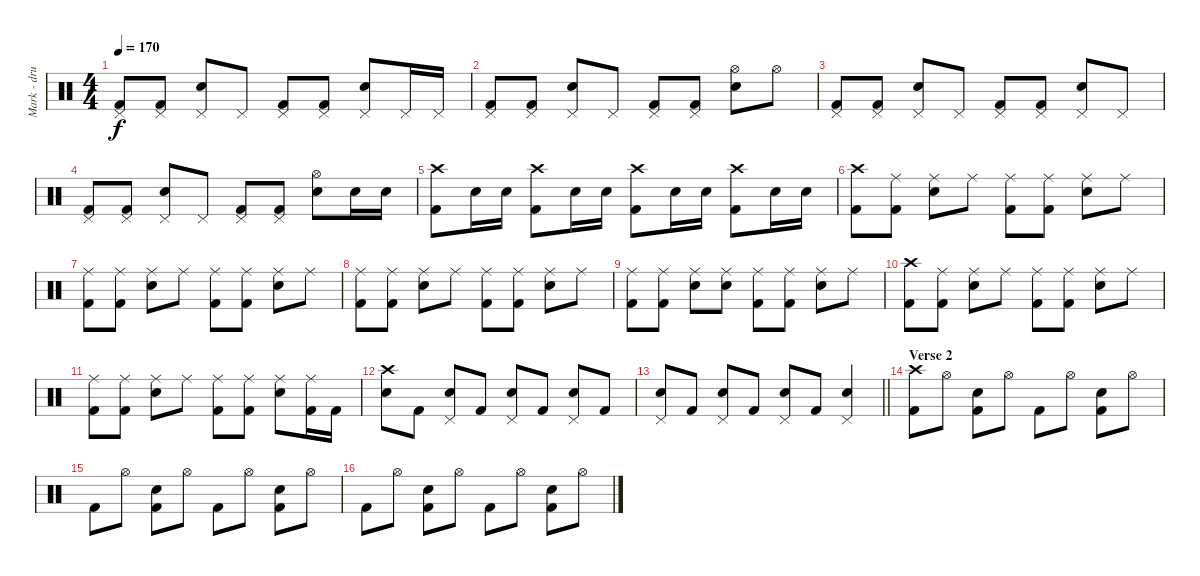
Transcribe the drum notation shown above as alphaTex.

\track ("Mark - drums" "Mark - dru") {instrument percussion}
\staff {score}
\articulation defaults
\ts (4 4)
\tempo 170
\clef neutral
\ks c
("Kick (hit) 2" "Pedal Hi-Hat (hit)").8{dy f} ("Kick (hit) 2" "Pedal Hi-Hat (hit)").8 ("Electric Snare (hit)" "Pedal Hi-Hat (hit)").8 "Pedal Hi-Hat (hit)".8 ("Kick (hit) 2" "Pedal Hi-Hat (hit)").8 ("Kick (hit) 2" "Pedal Hi-Hat (hit)").8 ("Electric Snare (hit)" "Pedal Hi-Hat (hit)").8 "Pedal Hi-Hat (hit)".16 "Pedal Hi-Hat (hit)".16 |
("Kick (hit) 2" "Pedal Hi-Hat (hit)").8 ("Kick (hit) 2" "Pedal Hi-Hat (hit)").8 ("Electric Snare (hit)" "Pedal Hi-Hat (hit)").8 "Pedal Hi-Hat (hit)".8 ("Kick (hit) 2" "Pedal Hi-Hat (hit)").8 ("Kick (hit) 2" "Pedal Hi-Hat (hit)").8 ("Electric Snare (hit)" "Hi-Hat (open)").8 "Hi-Hat (open)".8 |
("Kick (hit) 2" "Pedal Hi-Hat (hit)").8 ("Kick (hit) 2" "Pedal Hi-Hat (hit)").8 ("Electric Snare (hit)" "Pedal Hi-Hat (hit)").8 "Pedal Hi-Hat (hit)".8 ("Kick (hit) 2" "Pedal Hi-Hat (hit)").8 ("Kick (hit) 2" "Pedal Hi-Hat (hit)").8 ("Electric Snare (hit)" "Pedal Hi-Hat (hit)").8 "Pedal Hi-Hat (hit)".8 |
("Kick (hit) 2" "Pedal Hi-Hat (hit)").8 ("Kick (hit) 2" "Pedal Hi-Hat (hit)").8 ("Electric Snare (hit)" "Pedal Hi-Hat (hit)").8 "Pedal Hi-Hat (hit)".8 ("Kick (hit) 2" "Pedal Hi-Hat (hit)").8 ("Kick (hit) 2" "Pedal Hi-Hat (hit)").8 ("Electric Snare (hit)" "Hi-Hat (open)").8 "Electric Snare (hit)".16 "Electric Snare (hit)".16 |
("Kick (hit) 2" "Crash high (hit)").8 "Electric Snare (hit)".16 "Electric Snare (hit)".16 ("Kick (hit) 2" "Crash high (hit)").8 "Electric Snare (hit)".16 "Electric Snare (hit)".16 ("Kick (hit) 2" "Crash high (hit)").8 "Electric Snare (hit)".16 "Electric Snare (hit)".16 ("Kick (hit) 2" "Crash high (hit)").8 "Electric Snare (hit)".16 "Electric Snare (hit)".16 |
("Kick (hit) 2" "Crash high (hit)").8 ("Kick (hit) 2" "Ride (middle)").8 ("Electric Snare (hit)" "Ride (middle)").8 "Ride (middle)".8 ("Kick (hit) 2" "Ride (middle)").8 ("Kick (hit) 2" "Ride (middle)").8 ("Electric Snare (hit)" "Ride (middle)").8 "Ride (middle)".8 |
("Kick (hit) 2" "Ride (middle)").8 ("Kick (hit) 2" "Ride (middle)").8 ("Electric Snare (hit)" "Ride (middle)").8 "Ride (middle)".8 ("Kick (hit) 2" "Ride (middle)").8 ("Kick (hit) 2" "Ride (middle)").8 ("Electric Snare (hit)" "Ride (middle)").8 "Ride (middle)".8 |
("Kick (hit) 2" "Ride (middle)").8 ("Kick (hit) 2" "Ride (middle)").8 ("Electric Snare (hit)" "Ride (middle)").8 "Ride (middle)".8 ("Kick (hit) 2" "Ride (middle)").8 ("Kick (hit) 2" "Ride (middle)").8 ("Electric Snare (hit)" "Ride (middle)").8 "Ride (middle)".8 |
("Kick (hit) 2" "Ride (middle)").8 ("Kick (hit) 2" "Ride (middle)").8 ("Electric Snare (hit)" "Ride (middle)").8 ("Electric Snare (hit)" "Ride (middle)").8 ("Kick (hit) 2" "Ride (middle)").8 ("Kick (hit) 2" "Ride (middle)").8 ("Electric Snare (hit)" "Ride (middle)").8 "Ride (middle)".8 |
("Kick (hit) 2" "Crash high (hit)").8 ("Kick (hit) 2" "Ride (middle)").8 ("Electric Snare (hit)" "Ride (middle)").8 "Ride (middle)".8 ("Kick (hit) 2" "Ride (middle)").8 ("Kick (hit) 2" "Ride (middle)").8 ("Electric Snare (hit)" "Ride (middle)").8 "Ride (middle)".8 |
("Kick (hit) 2" "Ride (middle)").8 ("Kick (hit) 2" "Ride (middle)").8 ("Electric Snare (hit)" "Ride (middle)").8 "Ride (middle)".8 ("Kick (hit) 2" "Ride (middle)").8 ("Kick (hit) 2" "Ride (middle)").8 ("Electric Snare (hit)" "Ride (middle)").8 ("Kick (hit) 2" "Ride (middle)").16 "Kick (hit) 2".16 |
("Electric Snare (hit)" "Crash high (hit)").8 "Kick (hit) 2".8 ("Electric Snare (hit)" "Pedal Hi-Hat (hit)").8 "Kick (hit) 2".8 ("Electric Snare (hit)" "Pedal Hi-Hat (hit)").8 "Kick (hit) 2".8 ("Electric Snare (hit)" "Pedal Hi-Hat (hit)").8 "Kick (hit) 2".8 |
\barLineRight lightlight
("Electric Snare (hit)" "Pedal Hi-Hat (hit)").8 "Kick (hit) 2".8 ("Electric Snare (hit)" "Pedal Hi-Hat (hit)").8 "Kick (hit) 2".8 ("Electric Snare (hit)" "Pedal Hi-Hat (hit)").8 "Kick (hit) 2".8 ("Electric Snare (hit)" "Pedal Hi-Hat (hit)").4 |
\section ("" "Verse 2")
("Kick (hit) 2" "Crash high (hit)").8 "Hi-Hat (open)".8 ("Kick (hit) 2" "Electric Snare (hit)").8 "Hi-Hat (open)".8 "Kick (hit) 2".8 "Hi-Hat (open)".8 ("Kick (hit) 2" "Electric Snare (hit)").8 "Hi-Hat (open)".8 |
"Kick (hit) 2".8 "Hi-Hat (open)".8 ("Kick (hit) 2" "Electric Snare (hit)").8 "Hi-Hat (open)".8 "Kick (hit) 2".8 "Hi-Hat (open)".8 ("Kick (hit) 2" "Electric Snare (hit)").8 "Hi-Hat (open)".8 |
"Kick (hit) 2".8 "Hi-Hat (open)".8 ("Kick (hit) 2" "Electric Snare (hit)").8 "Hi-Hat (open)".8 "Kick (hit) 2".8 "Hi-Hat (open)".8 ("Kick (hit) 2" "Electric Snare (hit)").8 "Hi-Hat (open)".8
